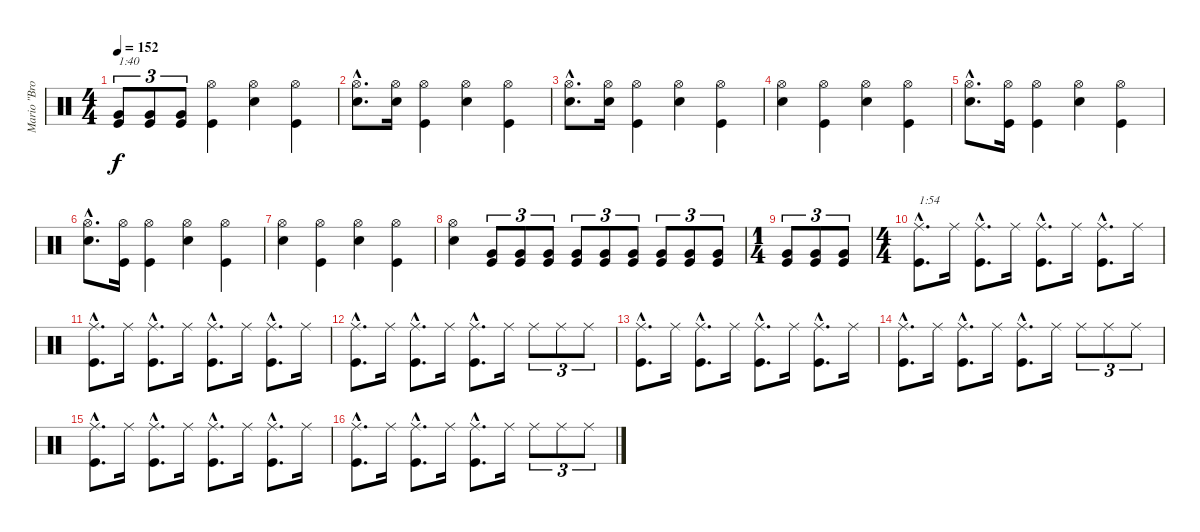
\track ("Mario \"Bros\" Carvajal" "Mario \"Bro") {instrument percussion}
\staff {score}
\articulation defaults
\ts (4 4)
\tempo 152
\clef neutral
\ks c
("Kick (hit)" "Very Low Tom (hit)").8{tu (3 2) txt "1:40" dy f} ("Kick (hit)" "Very Low Tom (hit)").8{tu (3 2)} ("Kick (hit)" "Very Low Tom (hit)").8{tu (3 2)} ("Kick (hit)" "Hi-Hat (open)").4 ("Snare (hit) 2" "Hi-Hat (open)").4 ("Kick (hit)" "Hi-Hat (open)").4 |
("Snare (hit) 2"{hac} "Hi-Hat (open)"{hac}).8{d} ("Snare (hit) 2" "Hi-Hat (open)").16 ("Kick (hit)" "Hi-Hat (open)").4 ("Snare (hit) 2" "Hi-Hat (open)").4 ("Kick (hit)" "Hi-Hat (open)").4 |
("Snare (hit) 2"{hac} "Hi-Hat (open)"{hac}).8{d} ("Snare (hit) 2" "Hi-Hat (open)").16 ("Kick (hit)" "Hi-Hat (open)").4 ("Snare (hit) 2" "Hi-Hat (open)").4 ("Kick (hit)" "Hi-Hat (open)").4 |
("Snare (hit) 2" "Hi-Hat (open)").4 ("Kick (hit)" "Hi-Hat (open)").4 ("Snare (hit) 2" "Hi-Hat (open)").4 ("Kick (hit)" "Hi-Hat (open)").4 |
("Snare (hit) 2"{hac} "Hi-Hat (open)"{hac}).8{d} ("Kick (hit)" "Hi-Hat (open)").16 ("Kick (hit)" "Hi-Hat (open)").4 ("Snare (hit) 2" "Hi-Hat (open)").4 ("Kick (hit)" "Hi-Hat (open)").4 |
("Snare (hit) 2"{hac} "Hi-Hat (open)"{hac}).8{d} ("Kick (hit)" "Hi-Hat (open)").16 ("Kick (hit)" "Hi-Hat (open)").4 ("Snare (hit) 2" "Hi-Hat (open)").4 ("Kick (hit)" "Hi-Hat (open)").4 |
("Snare (hit) 2" "Hi-Hat (open)").4 ("Kick (hit)" "Hi-Hat (open)").4 ("Snare (hit) 2" "Hi-Hat (open)").4 ("Kick (hit)" "Hi-Hat (open)").4 |
("Snare (hit) 2" "Hi-Hat (open)").4 ("Kick (hit)" "Very Low Tom (hit)").8{tu (3 2)} ("Kick (hit)" "Very Low Tom (hit)").8{tu (3 2)} ("Kick (hit)" "Very Low Tom (hit)").8{tu (3 2)} ("Kick (hit)" "Very Low Tom (hit)").8{tu (3 2)} ("Kick (hit)" "Very Low Tom (hit)").8{tu (3 2)} ("Kick (hit)" "Very Low Tom (hit)").8{tu (3 2)} ("Kick (hit)" "Very Low Tom (hit)").8{tu (3 2)} ("Kick (hit)" "Very Low Tom (hit)").8{tu (3 2)} ("Kick (hit)" "Very Low Tom (hit)").8{tu (3 2)} |
\ts (1 4)
("Kick (hit)" "Very Low Tom (hit)").8{tu (3 2)} ("Kick (hit)" "Very Low Tom (hit)").8{tu (3 2)} ("Kick (hit)" "Very Low Tom (hit)").8{tu (3 2)} |
\ts (4 4)
("Kick (hit)"{hac} "Ride (middle)"{hac}).8{d txt "1:54"} "Ride (middle)".16 ("Kick (hit)"{hac} "Ride (middle)"{hac}).8{d} "Ride (middle)".16 ("Kick (hit)"{hac} "Ride (middle)"{hac}).8{d} "Ride (middle)".16 ("Kick (hit)"{hac} "Ride (middle)"{hac}).8{d} "Ride (middle)".16 |
("Kick (hit)"{hac} "Ride (middle)"{hac}).8{d} "Ride (middle)".16 ("Kick (hit)"{hac} "Ride (middle)"{hac}).8{d} "Ride (middle)".16 ("Kick (hit)"{hac} "Ride (middle)"{hac}).8{d} "Ride (middle)".16 ("Kick (hit)"{hac} "Ride (middle)"{hac}).8{d} "Ride (middle)".16 |
("Kick (hit)"{hac} "Ride (middle)"{hac}).8{d} "Ride (middle)".16 ("Kick (hit)"{hac} "Ride (middle)"{hac}).8{d} "Ride (middle)".16 ("Kick (hit)"{hac} "Ride (middle)"{hac}).8{d} "Ride (middle)".16 "Ride (middle)".8{tu (3 2)} "Ride (middle)".8{tu (3 2)} "Ride (middle)".8{tu (3 2)} |
("Kick (hit)"{hac} "Ride (middle)"{hac}).8{d} "Ride (middle)".16 ("Kick (hit)"{hac} "Ride (middle)"{hac}).8{d} "Ride (middle)".16 ("Kick (hit)"{hac} "Ride (middle)"{hac}).8{d} "Ride (middle)".16 ("Kick (hit)"{hac} "Ride (middle)"{hac}).8{d} "Ride (middle)".16 |
("Kick (hit)"{hac} "Ride (middle)"{hac}).8{d} "Ride (middle)".16 ("Kick (hit)"{hac} "Ride (middle)"{hac}).8{d} "Ride (middle)".16 ("Kick (hit)"{hac} "Ride (middle)"{hac}).8{d} "Ride (middle)".16 "Ride (middle)".8{tu (3 2)} "Ride (middle)".8{tu (3 2)} "Ride (middle)".8{tu (3 2)} |
("Kick (hit)"{hac} "Ride (middle)"{hac}).8{d} "Ride (middle)".16 ("Kick (hit)"{hac} "Ride (middle)"{hac}).8{d} "Ride (middle)".16 ("Kick (hit)"{hac} "Ride (middle)"{hac}).8{d} "Ride (middle)".16 ("Kick (hit)"{hac} "Ride (middle)"{hac}).8{d} "Ride (middle)".16 |
("Kick (hit)"{hac} "Ride (middle)"{hac}).8{d} "Ride (middle)".16 ("Kick (hit)"{hac} "Ride (middle)"{hac}).8{d} "Ride (middle)".16 ("Kick (hit)"{hac} "Ride (middle)"{hac}).8{d} "Ride (middle)".16 "Ride (middle)".8{tu (3 2)} "Ride (middle)".8{tu (3 2)} "Ride (middle)".8{tu (3 2)}
